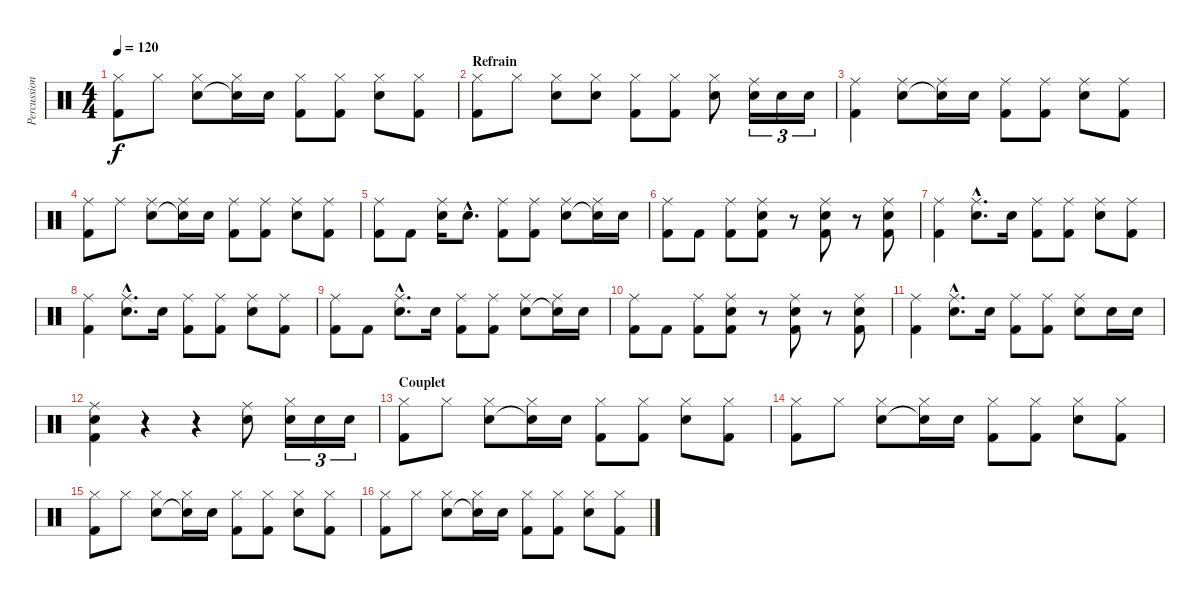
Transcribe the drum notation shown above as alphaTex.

\track ("Percussions" "Percussion") {instrument percussion}
\staff {score}
\articulation defaults
\ts (4 4)
\tempo 120
\clef neutral
\ks c
("Hi-Hat (closed)" "Kick (hit) 2").8{dy f} "Hi-Hat (closed)".8 ("Hi-Hat (closed)" "Snare (hit) 2").8 ("Hi-Hat (closed)" "Snare (hit)"{t}).16 "Snare (hit) 2".16 ("Hi-Hat (closed)" "Kick (hit) 2").8 ("Hi-Hat (closed)" "Kick (hit) 2").8 ("Hi-Hat (closed)" "Snare (hit) 2").8 ("Hi-Hat (closed)" "Kick (hit) 2").8 |
\section ("" "Refrain")
("Hi-Hat (closed)" "Kick (hit) 2").8 "Hi-Hat (closed)".8 ("Hi-Hat (closed)" "Snare (hit) 2").8 ("Hi-Hat (closed)" "Snare (hit)").8 ("Hi-Hat (closed)" "Kick (hit) 2").8 ("Hi-Hat (closed)" "Kick (hit) 2").8 ("Hi-Hat (closed)" "Snare (hit) 2").8 ("Ride (middle)" "Snare (hit) 2").16{tu (3 2)} "Snare (hit) 2".16{tu (3 2)} "Snare (hit) 2".16{tu (3 2)} |
("Ride (middle)" "Kick (hit) 2").4 ("Ride (middle)" "Snare (hit) 2").8 ("Ride (middle)" "Snare (hit)"{t}).16 "Snare (hit) 2".16 ("Ride (middle)" "Kick (hit) 2").8 ("Ride (middle)" "Kick (hit) 2").8 ("Ride (middle)" "Snare (hit) 2").8 ("Ride (middle)" "Kick (hit) 2").8 |
("Ride (middle)" "Kick (hit) 2").8 "Ride (middle)".8 ("Ride (middle)" "Snare (hit) 2").8 ("Ride (middle)" "Snare (hit)"{t}).16 "Snare (hit) 2".16 ("Ride (middle)" "Kick (hit) 2").8 ("Ride (middle)" "Kick (hit) 2").8 ("Ride (middle)" "Snare (hit) 2").8 ("Ride (middle)" "Kick (hit) 2").8 |
("Ride (middle)" "Kick (hit) 2").8 "Kick (hit) 2".8 ("Ride (middle)" "Snare (hit) 2").16 "Snare (hit) 2"{hac}.8{d} ("Ride (middle)" "Kick (hit) 2").8 ("Ride (middle)" "Kick (hit) 2").8 ("Ride (middle)" "Snare (hit) 2").8 ("Ride (middle)" "Snare (hit) 2"{t}).16 "Snare (hit) 2".16 |
("Ride (middle)" "Kick (hit) 2").8 "Kick (hit) 2".8 ("Ride (middle)" "Kick (hit) 2").8 ("Ride (middle)" "Snare (hit) 2" "Kick (hit) 2").8 r.8 ("Ride (middle)" "Snare (hit) 2" "Kick (hit) 2").8 r.8 ("Ride (middle)" "Snare (hit) 2" "Kick (hit) 2").8 |
("Ride (middle)" "Kick (hit) 2").4 ("Ride (middle)"{hac} "Snare (hit) 2"{hac}).8{d} "Snare (hit) 2".16 ("Ride (middle)" "Kick (hit) 2").8 ("Ride (middle)" "Kick (hit) 2").8 ("Ride (middle)" "Snare (hit) 2").8 ("Ride (middle)" "Kick (hit) 2").8 |
("Ride (middle)" "Kick (hit) 2").4 ("Ride (middle)"{hac} "Snare (hit) 2"{hac}).8{d} "Snare (hit) 2".16 ("Ride (middle)" "Kick (hit) 2").8 ("Ride (middle)" "Kick (hit) 2").8 ("Ride (middle)" "Snare (hit) 2").8 ("Ride (middle)" "Kick (hit) 2").8 |
("Ride (middle)" "Kick (hit) 2").8 "Kick (hit) 2".8 ("Ride (middle)"{hac} "Snare (hit) 2"{hac}).8{d} "Snare (hit) 2".16 ("Ride (middle)" "Kick (hit) 2").8 ("Ride (middle)" "Kick (hit) 2").8 ("Ride (middle)" "Snare (hit) 2").8 ("Ride (middle)" "Snare (hit)"{t}).16 "Snare (hit) 2".16 |
("Ride (middle)" "Kick (hit) 2").8 "Kick (hit) 2".8 ("Ride (middle)" "Kick (hit) 2").8 ("Ride (middle)" "Snare (hit) 2" "Kick (hit) 2").8 r.8 ("Ride (middle)" "Snare (hit) 2" "Kick (hit) 2").8 r.8 ("Ride (middle)" "Snare (hit) 2" "Kick (hit) 2").8 |
("Ride (middle)" "Kick (hit) 2").4 ("Ride (middle)"{hac} "Snare (hit) 2"{hac}).8{d} "Snare (hit) 2".16 ("Ride (middle)" "Kick (hit) 2").8 ("Ride (middle)" "Kick (hit) 2").8 ("Ride (middle)" "Snare (hit) 2").8 "Snare (hit) 2".16 "Snare (hit) 2".16 |
("Ride (middle)" "Snare (hit) 2" "Kick (hit) 2").4 r.4 r.4 ("Ride (middle)" "Snare (hit) 2").8 ("Hi-Hat (closed)" "Snare (hit) 2").16{tu (3 2)} "Snare (hit) 2".16{tu (3 2)} "Snare (hit) 2".16{tu (3 2)} |
\section ("" "Couplet")
("Hi-Hat (closed)" "Kick (hit) 2").8 "Hi-Hat (closed)".8 ("Hi-Hat (closed)" "Snare (hit) 2").8 ("Hi-Hat (closed)" "Snare (hit)"{t}).16 "Snare (hit) 2".16 ("Hi-Hat (closed)" "Kick (hit) 2").8 ("Hi-Hat (closed)" "Kick (hit) 2").8 ("Hi-Hat (closed)" "Snare (hit) 2").8 ("Hi-Hat (closed)" "Kick (hit) 2").8 |
("Hi-Hat (closed)" "Kick (hit) 2").8 "Hi-Hat (closed)".8 ("Hi-Hat (closed)" "Snare (hit) 2").8 ("Hi-Hat (closed)" "Snare (hit)"{t}).16 "Snare (hit) 2".16 ("Hi-Hat (closed)" "Kick (hit) 2").8 ("Hi-Hat (closed)" "Kick (hit) 2").8 ("Hi-Hat (closed)" "Snare (hit) 2").8 ("Hi-Hat (closed)" "Kick (hit) 2").8 |
("Hi-Hat (closed)" "Kick (hit) 2").8 "Hi-Hat (closed)".8 ("Hi-Hat (closed)" "Snare (hit) 2").8 ("Hi-Hat (closed)" "Snare (hit)"{t}).16 "Snare (hit) 2".16 ("Hi-Hat (closed)" "Kick (hit) 2").8 ("Hi-Hat (closed)" "Kick (hit) 2").8 ("Hi-Hat (closed)" "Snare (hit) 2").8 ("Hi-Hat (closed)" "Kick (hit) 2").8 |
("Hi-Hat (closed)" "Kick (hit) 2").8 "Hi-Hat (closed)".8 ("Hi-Hat (closed)" "Snare (hit) 2").8 ("Hi-Hat (closed)" "Snare (hit)"{t}).16 "Snare (hit) 2".16 ("Hi-Hat (closed)" "Kick (hit) 2").8 ("Hi-Hat (closed)" "Kick (hit) 2").8 ("Hi-Hat (closed)" "Snare (hit) 2").8 ("Hi-Hat (closed)" "Kick (hit) 2").8
